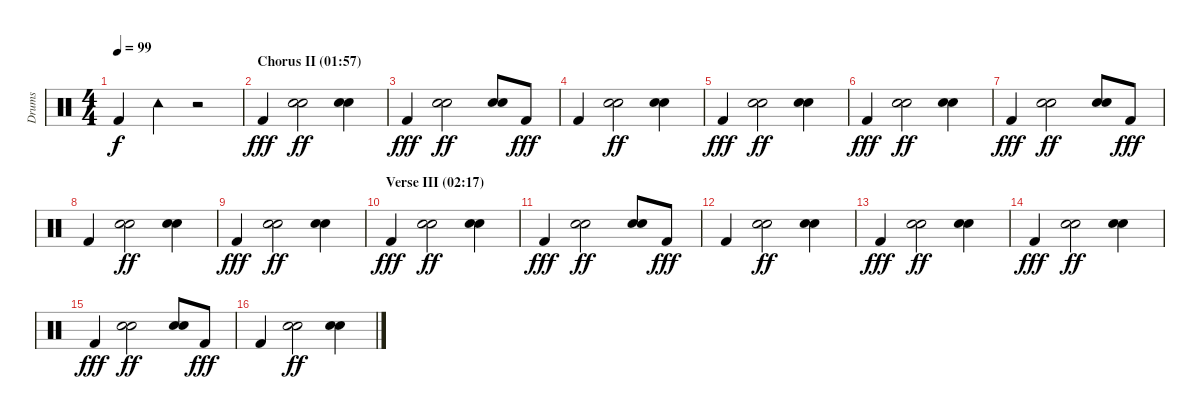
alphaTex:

\track ("Drums" "Drums") {instrument percussion}
\staff {score}
\articulation defaults
\ts (4 4)
\tempo 99
\clef neutral
\ks c "Kick (hit) 2".4{dy f} "Tambourine (hit)".4
r.2 |
\section ("" "Chorus II (01:57)")
"Kick (hit) 2".4{dy fff} ("Snare (hit) 2" "Hand Clap (hit)").2{dy ff} ("Snare (hit) 2" "Hand Clap (hit)").4 |
"Kick (hit) 2".4{dy fff} ("Snare (hit) 2" "Hand Clap (hit)").2{dy ff} ("Snare (hit) 2" "Hand Clap (hit)").8 "Kick (hit) 2".8{dy fff} |
"Kick (hit) 2".4 ("Snare (hit) 2" "Hand Clap (hit)").2{dy ff} ("Snare (hit) 2" "Hand Clap (hit)").4 |
"Kick (hit) 2".4{dy fff} ("Snare (hit) 2" "Hand Clap (hit)").2{dy ff} ("Snare (hit) 2" "Hand Clap (hit)").4 |
"Kick (hit) 2".4{dy fff} ("Snare (hit) 2" "Hand Clap (hit)").2{dy ff} ("Snare (hit) 2" "Hand Clap (hit)").4 |
"Kick (hit) 2".4{dy fff} ("Snare (hit) 2" "Hand Clap (hit)").2{dy ff} ("Snare (hit) 2" "Hand Clap (hit)").8 "Kick (hit) 2".8{dy fff} |
"Kick (hit) 2".4 ("Snare (hit) 2" "Hand Clap (hit)").2{dy ff} ("Snare (hit) 2" "Hand Clap (hit)").4 |
"Kick (hit) 2".4{dy fff} ("Snare (hit) 2" "Hand Clap (hit)").2{dy ff} ("Snare (hit) 2" "Hand Clap (hit)").4 |
\section ("" "Verse III (02:17)")
"Kick (hit) 2".4{dy fff} ("Snare (hit) 2" "Hand Clap (hit)").2{dy ff} ("Snare (hit) 2" "Hand Clap (hit)").4 |
"Kick (hit) 2".4{dy fff} ("Snare (hit) 2" "Hand Clap (hit)").2{dy ff} ("Snare (hit) 2" "Hand Clap (hit)").8 "Kick (hit) 2".8{dy fff} |
"Kick (hit) 2".4 ("Snare (hit) 2" "Hand Clap (hit)").2{dy ff} ("Snare (hit) 2" "Hand Clap (hit)").4 |
"Kick (hit) 2".4{dy fff} ("Snare (hit) 2" "Hand Clap (hit)").2{dy ff} ("Snare (hit) 2" "Hand Clap (hit)").4 |
"Kick (hit) 2".4{dy fff} ("Snare (hit) 2" "Hand Clap (hit)").2{dy ff} ("Snare (hit) 2" "Hand Clap (hit)").4 |
"Kick (hit) 2".4{dy fff} ("Snare (hit) 2" "Hand Clap (hit)").2{dy ff} ("Snare (hit) 2" "Hand Clap (hit)").8 "Kick (hit) 2".8{dy fff} |
"Kick (hit) 2".4 ("Snare (hit) 2" "Hand Clap (hit)").2{dy ff} ("Snare (hit) 2" "Hand Clap (hit)").4
